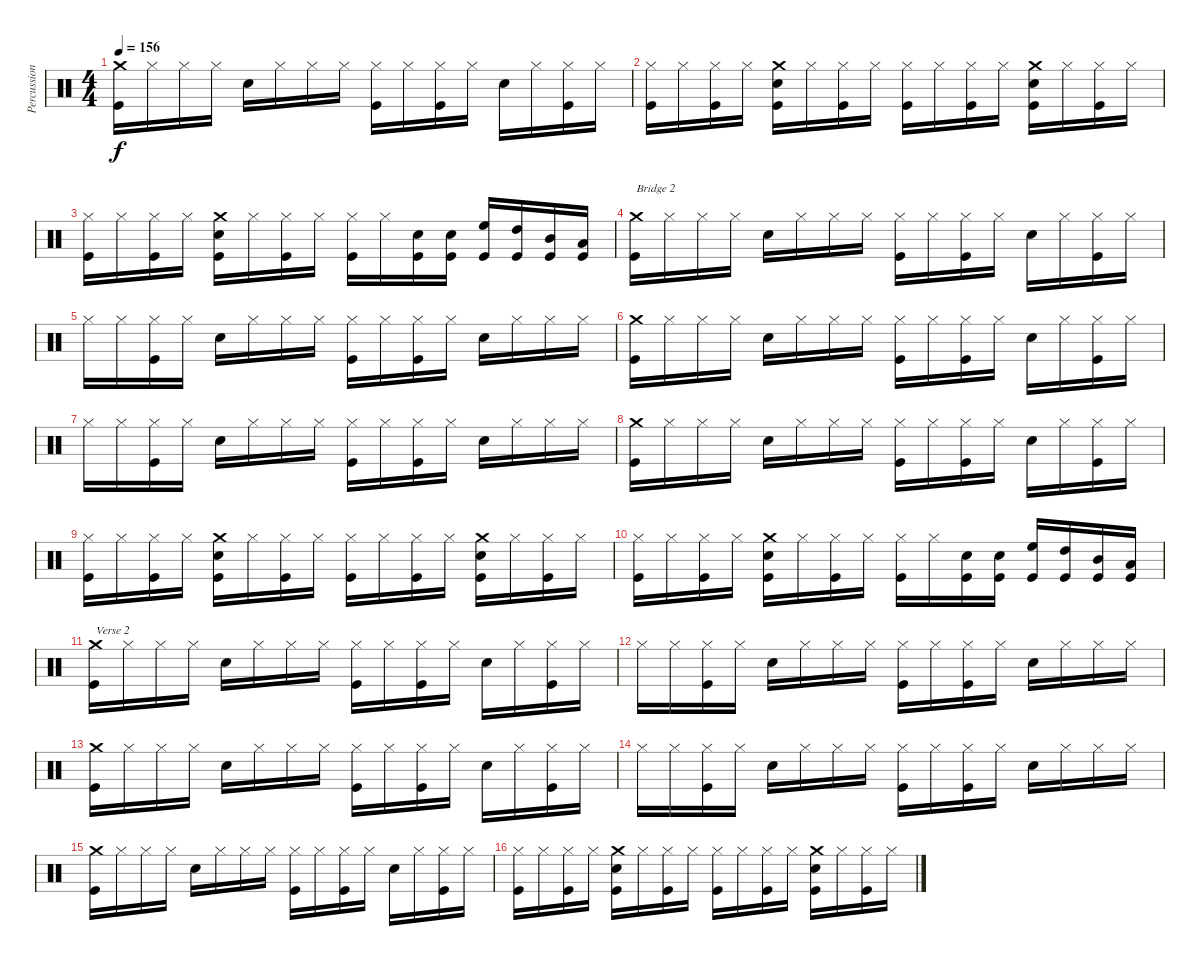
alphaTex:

\track ("Percussion" "Percussion") {instrument percussion}
\staff {score}
\articulation defaults
\ts (4 4)
\tempo 156
\clef neutral
\ks c
("Kick (hit)" "Crash medium (hit)").16{dy f} "Hi-Hat (closed)".16 "Hi-Hat (closed)".16 "Hi-Hat (closed)".16 "Snare (hit) 2".16 "Hi-Hat (closed)".16 "Hi-Hat (closed)".16 "Hi-Hat (closed)".16 ("Kick (hit)" "Hi-Hat (closed)").16 "Hi-Hat (closed)".16 ("Kick (hit)" "Hi-Hat (closed)").16 "Hi-Hat (closed)".16 "Snare (hit) 2".16 "Hi-Hat (closed)".16 ("Kick (hit)" "Hi-Hat (closed)").16 "Hi-Hat (closed)".16 |
("Kick (hit)" "Hi-Hat (closed)").16 "Hi-Hat (closed)".16 ("Kick (hit)" "Hi-Hat (closed)").16 "Hi-Hat (closed)".16 ("Kick (hit)" "Snare (hit) 2" "Crash medium (hit)").16 "Hi-Hat (closed)".16 ("Kick (hit)" "Hi-Hat (closed)").16 "Hi-Hat (closed)".16 ("Kick (hit)" "Hi-Hat (closed)").16 "Hi-Hat (closed)".16 ("Kick (hit)" "Hi-Hat (closed)").16 "Hi-Hat (closed)".16 ("Kick (hit)" "Snare (hit) 2" "Crash medium (hit)").16 "Hi-Hat (closed)".16 ("Kick (hit)" "Hi-Hat (closed)").16 "Hi-Hat (closed)".16 |
("Kick (hit)" "Hi-Hat (closed)").16 "Hi-Hat (closed)".16 ("Kick (hit)" "Hi-Hat (closed)").16 "Hi-Hat (closed)".16 ("Kick (hit)" "Snare (hit) 2" "Crash medium (hit)").16 "Hi-Hat (closed)".16 ("Kick (hit)" "Hi-Hat (closed)").16 "Hi-Hat (closed)".16 ("Kick (hit)" "Hi-Hat (closed)").16 "Hi-Hat (closed)".16 ("Snare (hit) 2" "Kick (hit)").16 ("Snare (hit) 2" "Kick (hit)").16 ("High Floor Tom (hit)" "Kick (hit)").16 ("High Tom (hit)" "Kick (hit)").16 ("Mid Tom (hit)" "Kick (hit)").16 ("Low Tom (hit)" "Kick (hit)").16 |
("Kick (hit)" "Crash medium (hit)").16{txt "Bridge 2"} "Hi-Hat (closed)".16 "Hi-Hat (closed)".16 "Hi-Hat (closed)".16 "Snare (hit) 2".16 "Hi-Hat (closed)".16 "Hi-Hat (closed)".16 "Hi-Hat (closed)".16 ("Kick (hit)" "Hi-Hat (closed)").16 "Hi-Hat (closed)".16 ("Kick (hit)" "Hi-Hat (closed)").16 "Hi-Hat (closed)".16 "Snare (hit) 2".16 "Hi-Hat (closed)".16 ("Kick (hit)" "Hi-Hat (closed)").16 "Hi-Hat (closed)".16 |
"Hi-Hat (closed)".16 "Hi-Hat (closed)".16 ("Kick (hit)" "Hi-Hat (closed)").16 "Hi-Hat (closed)".16 "Snare (hit) 2".16 "Hi-Hat (closed)".16 "Hi-Hat (closed)".16 "Hi-Hat (closed)".16 ("Kick (hit)" "Hi-Hat (closed)").16 "Hi-Hat (closed)".16 ("Kick (hit)" "Hi-Hat (closed)").16 "Hi-Hat (closed)".16 "Snare (hit) 2".16 "Hi-Hat (closed)".16 "Hi-Hat (closed)".16 "Hi-Hat (closed)".16 |
("Kick (hit)" "Crash medium (hit)").16 "Hi-Hat (closed)".16 "Hi-Hat (closed)".16 "Hi-Hat (closed)".16 "Snare (hit) 2".16 "Hi-Hat (closed)".16 "Hi-Hat (closed)".16 "Hi-Hat (closed)".16 ("Kick (hit)" "Hi-Hat (closed)").16 "Hi-Hat (closed)".16 ("Kick (hit)" "Hi-Hat (closed)").16 "Hi-Hat (closed)".16 "Snare (hit) 2".16 "Hi-Hat (closed)".16 ("Kick (hit)" "Hi-Hat (closed)").16 "Hi-Hat (closed)".16 |
"Hi-Hat (closed)".16 "Hi-Hat (closed)".16 ("Kick (hit)" "Hi-Hat (closed)").16 "Hi-Hat (closed)".16 "Snare (hit) 2".16 "Hi-Hat (closed)".16 "Hi-Hat (closed)".16 "Hi-Hat (closed)".16 ("Kick (hit)" "Hi-Hat (closed)").16 "Hi-Hat (closed)".16 ("Kick (hit)" "Hi-Hat (closed)").16 "Hi-Hat (closed)".16 "Snare (hit) 2".16 "Hi-Hat (closed)".16 "Hi-Hat (closed)".16 "Hi-Hat (closed)".16 |
("Kick (hit)" "Crash medium (hit)").16 "Hi-Hat (closed)".16 "Hi-Hat (closed)".16 "Hi-Hat (closed)".16 "Snare (hit) 2".16 "Hi-Hat (closed)".16 "Hi-Hat (closed)".16 "Hi-Hat (closed)".16 ("Kick (hit)" "Hi-Hat (closed)").16 "Hi-Hat (closed)".16 ("Kick (hit)" "Hi-Hat (closed)").16 "Hi-Hat (closed)".16 "Snare (hit) 2".16 "Hi-Hat (closed)".16 ("Kick (hit)" "Hi-Hat (closed)").16 "Hi-Hat (closed)".16 |
("Kick (hit)" "Hi-Hat (closed)").16 "Hi-Hat (closed)".16 ("Kick (hit)" "Hi-Hat (closed)").16 "Hi-Hat (closed)".16 ("Kick (hit)" "Snare (hit) 2" "Crash medium (hit)").16 "Hi-Hat (closed)".16 ("Kick (hit)" "Hi-Hat (closed)").16 "Hi-Hat (closed)".16 ("Kick (hit)" "Hi-Hat (closed)").16 "Hi-Hat (closed)".16 ("Kick (hit)" "Hi-Hat (closed)").16 "Hi-Hat (closed)".16 ("Kick (hit)" "Snare (hit) 2" "Crash medium (hit)").16 "Hi-Hat (closed)".16 ("Kick (hit)" "Hi-Hat (closed)").16 "Hi-Hat (closed)".16 |
("Kick (hit)" "Hi-Hat (closed)").16 "Hi-Hat (closed)".16 ("Kick (hit)" "Hi-Hat (closed)").16 "Hi-Hat (closed)".16 ("Kick (hit)" "Snare (hit) 2" "Crash medium (hit)").16 "Hi-Hat (closed)".16 ("Kick (hit)" "Hi-Hat (closed)").16 "Hi-Hat (closed)".16 ("Kick (hit)" "Hi-Hat (closed)").16 "Hi-Hat (closed)".16 ("Snare (hit) 2" "Kick (hit)").16 ("Snare (hit) 2" "Kick (hit)").16 ("High Floor Tom (hit)" "Kick (hit)").16 ("High Tom (hit)" "Kick (hit)").16 ("Mid Tom (hit)" "Kick (hit)").16 ("Low Tom (hit)" "Kick (hit)").16 |
("Kick (hit)" "Crash medium (hit)").16{txt "Verse 2"} "Hi-Hat (closed)".16 "Hi-Hat (closed)".16 "Hi-Hat (closed)".16 "Snare (hit) 2".16 "Hi-Hat (closed)".16 "Hi-Hat (closed)".16 "Hi-Hat (closed)".16 ("Kick (hit)" "Hi-Hat (closed)").16 "Hi-Hat (closed)".16 ("Kick (hit)" "Hi-Hat (closed)").16 "Hi-Hat (closed)".16 "Snare (hit) 2".16 "Hi-Hat (closed)".16 ("Kick (hit)" "Hi-Hat (closed)").16 "Hi-Hat (closed)".16 |
"Hi-Hat (closed)".16 "Hi-Hat (closed)".16 ("Kick (hit)" "Hi-Hat (closed)").16 "Hi-Hat (closed)".16 "Snare (hit) 2".16 "Hi-Hat (closed)".16 "Hi-Hat (closed)".16 "Hi-Hat (closed)".16 ("Kick (hit)" "Hi-Hat (closed)").16 "Hi-Hat (closed)".16 ("Kick (hit)" "Hi-Hat (closed)").16 "Hi-Hat (closed)".16 "Snare (hit) 2".16 "Hi-Hat (closed)".16 "Hi-Hat (closed)".16 "Hi-Hat (closed)".16 |
("Kick (hit)" "Crash medium (hit)").16 "Hi-Hat (closed)".16 "Hi-Hat (closed)".16 "Hi-Hat (closed)".16 "Snare (hit) 2".16 "Hi-Hat (closed)".16 "Hi-Hat (closed)".16 "Hi-Hat (closed)".16 ("Kick (hit)" "Hi-Hat (closed)").16 "Hi-Hat (closed)".16 ("Kick (hit)" "Hi-Hat (closed)").16 "Hi-Hat (closed)".16 "Snare (hit) 2".16 "Hi-Hat (closed)".16 ("Kick (hit)" "Hi-Hat (closed)").16 "Hi-Hat (closed)".16 |
"Hi-Hat (closed)".16 "Hi-Hat (closed)".16 ("Kick (hit)" "Hi-Hat (closed)").16 "Hi-Hat (closed)".16 "Snare (hit) 2".16 "Hi-Hat (closed)".16 "Hi-Hat (closed)".16 "Hi-Hat (closed)".16 ("Kick (hit)" "Hi-Hat (closed)").16 "Hi-Hat (closed)".16 ("Kick (hit)" "Hi-Hat (closed)").16 "Hi-Hat (closed)".16 "Snare (hit) 2".16 "Hi-Hat (closed)".16 "Hi-Hat (closed)".16 "Hi-Hat (closed)".16 |
("Kick (hit)" "Crash medium (hit)").16 "Hi-Hat (closed)".16 "Hi-Hat (closed)".16 "Hi-Hat (closed)".16 "Snare (hit) 2".16 "Hi-Hat (closed)".16 "Hi-Hat (closed)".16 "Hi-Hat (closed)".16 ("Kick (hit)" "Hi-Hat (closed)").16 "Hi-Hat (closed)".16 ("Kick (hit)" "Hi-Hat (closed)").16 "Hi-Hat (closed)".16 "Snare (hit) 2".16 "Hi-Hat (closed)".16 ("Kick (hit)" "Hi-Hat (closed)").16 "Hi-Hat (closed)".16 |
("Kick (hit)" "Hi-Hat (closed)").16 "Hi-Hat (closed)".16 ("Kick (hit)" "Hi-Hat (closed)").16 "Hi-Hat (closed)".16 ("Kick (hit)" "Snare (hit) 2" "Crash medium (hit)").16 "Hi-Hat (closed)".16 ("Kick (hit)" "Hi-Hat (closed)").16 "Hi-Hat (closed)".16 ("Kick (hit)" "Hi-Hat (closed)").16 "Hi-Hat (closed)".16 ("Kick (hit)" "Hi-Hat (closed)").16 "Hi-Hat (closed)".16 ("Kick (hit)" "Snare (hit) 2" "Crash medium (hit)").16 "Hi-Hat (closed)".16 ("Kick (hit)" "Hi-Hat (closed)").16 "Hi-Hat (closed)".16
